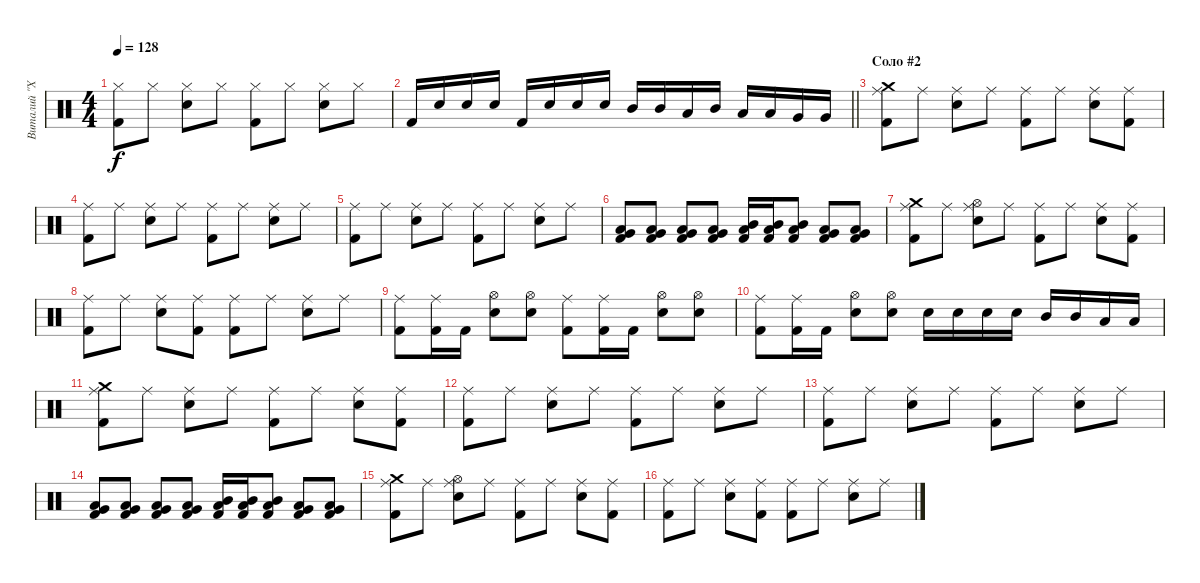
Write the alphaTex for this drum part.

\track ("Виталий \"Хамер\" Лядов" "Виталий \"Х") {instrument percussion}
\staff {score}
\articulation defaults
\ts (4 4)
\tempo 128
\clef neutral
\ks c
("Kick (hit) 2" "Hi-Hat (closed)").8{dy f} "Hi-Hat (closed)".8 ("Electric Snare (hit)" "Hi-Hat (closed)").8 "Hi-Hat (closed)".8 ("Kick (hit) 2" "Hi-Hat (closed)").8 "Hi-Hat (closed)".8 ("Electric Snare (hit)" "Hi-Hat (closed)").8 "Hi-Hat (closed)".8 |
\barLineRight lightlight "Kick (hit) 2".16 "Electric Snare (hit)".16 "Electric Snare (hit)".16 "Electric Snare (hit)".16 "Kick (hit) 2".16 "Electric Snare (hit)".16 "Electric Snare (hit)".16 "Electric Snare (hit)".16 "Mid Tom (hit)".16 "Mid Tom (hit)".16 "Low Tom (hit)".16 "Mid Tom (hit)".16 "Low Tom (hit)".16 "Low Tom (hit)".16 "Very Low Tom (hit)".16 "Very Low Tom (hit)".16
|
\section ("" "Соло #2")
("Kick (hit) 2" "Ride (middle)" "Crash medium (hit)").8 "Ride (middle)".8 ("Electric Snare (hit)" "Ride (middle)").8 "Ride (middle)".8 ("Kick (hit) 2" "Ride (middle)").8 "Ride (middle)".8 ("Electric Snare (hit)" "Ride (middle)").8 ("Kick (hit) 2" "Ride (middle)").8 |
("Kick (hit) 2" "Ride (middle)").8 "Ride (middle)".8 ("Electric Snare (hit)" "Ride (middle)").8 "Ride (middle)".8 ("Kick (hit) 2" "Ride (middle)").8 "Ride (middle)".8 ("Electric Snare (hit)" "Ride (middle)").8 "Ride (middle)".8 |
("Kick (hit) 2" "Ride (middle)").8 "Ride (middle)".8 ("Electric Snare (hit)" "Ride (middle)").8 "Ride (middle)".8 ("Kick (hit) 2" "Ride (middle)").8 "Ride (middle)".8 ("Electric Snare (hit)" "Ride (middle)").8 "Ride (middle)".8 |
("Kick (hit) 2" "Very Low Tom (hit)" "Low Tom (hit)").8 ("Kick (hit) 2" "Very Low Tom (hit)" "Low Tom (hit)").8 ("Kick (hit) 2" "Very Low Tom (hit)" "Low Tom (hit)").8 ("Kick (hit) 2" "Very Low Tom (hit)" "Low Tom (hit)").8 ("Kick (hit) 2" "Low Tom (hit)" "Mid Tom (hit)").16 ("Kick (hit) 2" "Low Tom (hit)" "Mid Tom (hit)").16 ("Kick (hit) 2" "Low Tom (hit)" "Mid Tom (hit)").8 ("Kick (hit) 2" "Low Tom (hit)" "Very Low Tom (hit)").8 ("Kick (hit) 2" "Very Low Tom (hit)" "Low Floor Tom (hit)").8 |
("Kick (hit) 2" "Ride (middle)" "Crash medium (hit)").8 "Ride (middle)".8 ("Electric Snare (hit)" "Ride (middle)" "Hi-Hat (open)").8 "Ride (middle)".8 ("Kick (hit) 2" "Ride (middle)").8 "Ride (middle)".8 ("Electric Snare (hit)" "Ride (middle)").8 ("Kick (hit) 2" "Ride (middle)").8 |
("Kick (hit) 2" "Ride (middle)").8 "Ride (middle)".8 ("Electric Snare (hit)" "Ride (middle)").8 ("Kick (hit) 2" "Ride (middle)").8 ("Kick (hit) 2" "Ride (middle)").8 "Ride (middle)".8 ("Electric Snare (hit)" "Ride (middle)").8 "Ride (middle)".8 |
("Kick (hit) 2" "Ride (middle)").8 ("Kick (hit) 2" "Ride (middle)").16 "Kick (hit) 2".16 ("Electric Snare (hit)" "Hi-Hat (open)").8 ("Electric Snare (hit)" "Hi-Hat (open)").8 ("Kick (hit) 2" "Ride (middle)").8 ("Kick (hit) 2" "Ride (middle)").16 "Kick (hit) 2".16 ("Electric Snare (hit)" "Hi-Hat (open)").8 ("Electric Snare (hit)" "Hi-Hat (open)").8 |
("Kick (hit) 2" "Ride (middle)").8 ("Kick (hit) 2" "Ride (middle)").16 "Kick (hit) 2".16 ("Electric Snare (hit)" "Hi-Hat (open)").8 ("Electric Snare (hit)" "Hi-Hat (open)").8 "Electric Snare (hit)".16 "Electric Snare (hit)".16 "Electric Snare (hit)".16 "Electric Snare (hit)".16 "Mid Tom (hit)".16 "Mid Tom (hit)".16 "Low Tom (hit)".16 "Low Tom (hit)".16 |
("Kick (hit) 2" "Ride (middle)" "Crash medium (hit)").8 "Ride (middle)".8 ("Electric Snare (hit)" "Ride (middle)").8 "Ride (middle)".8 ("Kick (hit) 2" "Ride (middle)").8 "Ride (middle)".8 ("Electric Snare (hit)" "Ride (middle)").8 ("Kick (hit) 2" "Ride (middle)").8 |
("Kick (hit) 2" "Ride (middle)").8 "Ride (middle)".8 ("Electric Snare (hit)" "Ride (middle)").8 "Ride (middle)".8 ("Kick (hit) 2" "Ride (middle)").8 "Ride (middle)".8 ("Electric Snare (hit)" "Ride (middle)").8 "Ride (middle)".8 |
("Kick (hit) 2" "Ride (middle)").8 "Ride (middle)".8 ("Electric Snare (hit)" "Ride (middle)").8 "Ride (middle)".8 ("Kick (hit) 2" "Ride (middle)").8 "Ride (middle)".8 ("Electric Snare (hit)" "Ride (middle)").8 "Ride (middle)".8 |
("Kick (hit) 2" "Very Low Tom (hit)" "Low Tom (hit)").8 ("Kick (hit) 2" "Very Low Tom (hit)" "Low Tom (hit)").8 ("Kick (hit) 2" "Very Low Tom (hit)" "Low Tom (hit)").8 ("Kick (hit) 2" "Very Low Tom (hit)" "Low Tom (hit)").8 ("Kick (hit) 2" "Low Tom (hit)" "Mid Tom (hit)").16 ("Kick (hit) 2" "Low Tom (hit)" "Mid Tom (hit)").16 ("Kick (hit) 2" "Low Tom (hit)" "Mid Tom (hit)").8 ("Kick (hit) 2" "Low Tom (hit)" "Very Low Tom (hit)").8 ("Kick (hit) 2" "Very Low Tom (hit)" "Low Floor Tom (hit)").8 |
("Kick (hit) 2" "Ride (middle)" "Crash medium (hit)").8 "Ride (middle)".8 ("Electric Snare (hit)" "Ride (middle)" "Hi-Hat (open)").8 "Ride (middle)".8 ("Kick (hit) 2" "Ride (middle)").8 "Ride (middle)".8 ("Electric Snare (hit)" "Ride (middle)").8 ("Kick (hit) 2" "Ride (middle)").8 |
("Kick (hit) 2" "Ride (middle)").8 "Ride (middle)".8 ("Electric Snare (hit)" "Ride (middle)").8 ("Kick (hit) 2" "Ride (middle)").8 ("Kick (hit) 2" "Ride (middle)").8 "Ride (middle)".8 ("Electric Snare (hit)" "Ride (middle)").8 "Ride (middle)".8
